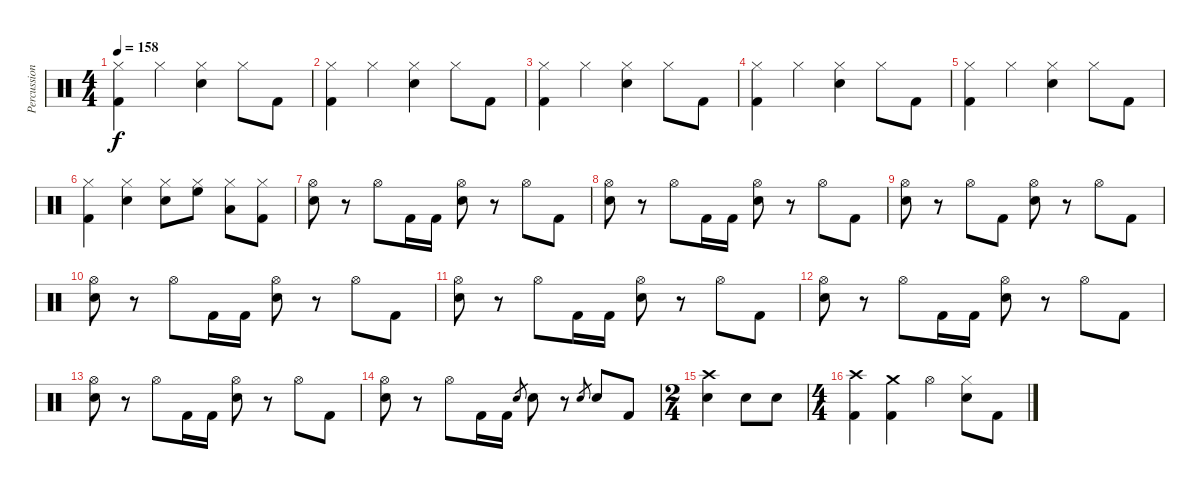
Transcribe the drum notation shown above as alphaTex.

\track ("Percussions" "Percussion") {instrument percussion}
\staff {score}
\articulation defaults
\ts (4 4)
\tempo 158
\clef neutral
\ks c
("Hi-Hat (closed)" "Kick (hit) 2").4{dy f} "Hi-Hat (closed)".4 ("Hi-Hat (closed)" "Snare (hit) 2").4 "Hi-Hat (closed)".8 "Kick (hit) 2".8 |
("Hi-Hat (closed)" "Kick (hit) 2").4 "Hi-Hat (closed)".4 ("Hi-Hat (closed)" "Snare (hit) 2").4 "Hi-Hat (closed)".8 "Kick (hit) 2".8 |
("Hi-Hat (closed)" "Kick (hit) 2").4 "Hi-Hat (closed)".4 ("Hi-Hat (closed)" "Snare (hit) 2").4 "Hi-Hat (closed)".8 "Kick (hit) 2".8 |
("Hi-Hat (closed)" "Kick (hit) 2").4 "Hi-Hat (closed)".4 ("Hi-Hat (closed)" "Snare (hit) 2").4 "Hi-Hat (closed)".8 "Kick (hit) 2".8 |
("Hi-Hat (closed)" "Kick (hit) 2").4 "Hi-Hat (closed)".4 ("Hi-Hat (closed)" "Snare (hit) 2").4 "Hi-Hat (closed)".8 "Kick (hit) 2".8 |
("Hi-Hat (closed)" "Kick (hit) 2").4 ("Hi-Hat (closed)" "Snare (hit) 2").4 ("Hi-Hat (closed)" "Snare (hit) 2").8 ("Hi-Hat (closed)" "High Floor Tom (hit)").8 ("Hi-Hat (closed)" "Low Floor Tom (hit)").8 ("Hi-Hat (closed)" "Kick (hit) 2").8 |
("Hi-Hat (open)" "Snare (hit) 2").8 r.8 "Hi-Hat (open)".8 "Kick (hit) 2".16 "Kick (hit) 2".16 ("Hi-Hat (open)" "Snare (hit) 2").8 r.8 "Hi-Hat (open)".8 "Kick (hit) 2".8 |
("Hi-Hat (open)" "Snare (hit) 2").8 r.8 "Hi-Hat (open)".8 "Kick (hit) 2".16 "Kick (hit) 2".16 ("Hi-Hat (open)" "Snare (hit) 2").8 r.8 "Hi-Hat (open)".8 "Kick (hit) 2".8 |
("Hi-Hat (open)" "Snare (hit) 2").8 r.8 "Hi-Hat (open)".8 "Kick (hit) 2".8 ("Hi-Hat (open)" "Snare (hit) 2").8 r.8 "Hi-Hat (open)".8 "Kick (hit) 2".8 |
("Hi-Hat (open)" "Snare (hit) 2").8 r.8 "Hi-Hat (open)".8 "Kick (hit) 2".16 "Kick (hit) 2".16 ("Hi-Hat (open)" "Snare (hit) 2").8 r.8 "Hi-Hat (open)".8 "Kick (hit) 2".8 |
("Hi-Hat (open)" "Snare (hit) 2").8 r.8 "Hi-Hat (open)".8 "Kick (hit) 2".16 "Kick (hit) 2".16 ("Hi-Hat (open)" "Snare (hit) 2").8 r.8 "Hi-Hat (open)".8 "Kick (hit) 2".8 |
("Hi-Hat (open)" "Snare (hit) 2").8 r.8 "Hi-Hat (open)".8 "Kick (hit) 2".16 "Kick (hit) 2".16 ("Hi-Hat (open)" "Snare (hit) 2").8 r.8 "Hi-Hat (open)".8 "Kick (hit) 2".8 |
("Hi-Hat (open)" "Snare (hit) 2").8 r.8 "Hi-Hat (open)".8 "Kick (hit) 2".16 "Kick (hit) 2".16 ("Hi-Hat (open)" "Snare (hit) 2").8 r.8 "Hi-Hat (open)".8 "Kick (hit) 2".8 |
("Hi-Hat (open)" "Snare (hit) 2").8 r.8 "Hi-Hat (open)".8 "Kick (hit) 2".16 "Kick (hit) 2".16 "Snare (hit) 2".8{gr} "Snare (hit) 2".8 r.8 "Snare (hit) 2".8{gr} "Snare (hit) 2".8 "Kick (hit) 2".8 |
\ts (2 4)
("Crash high (hit)" "Snare (hit) 2").4 "Snare (hit) 2".8 "Snare (hit) 2".8 |
\ts (4 4)
("Crash high (hit)" "Kick (hit) 2").4 ("Crash medium (hit)" "Kick (hit) 2").4 "Hi-Hat (open)".4 ("Hi-Hat (closed)" "Snare (hit) 2").8 "Kick (hit) 2".8
